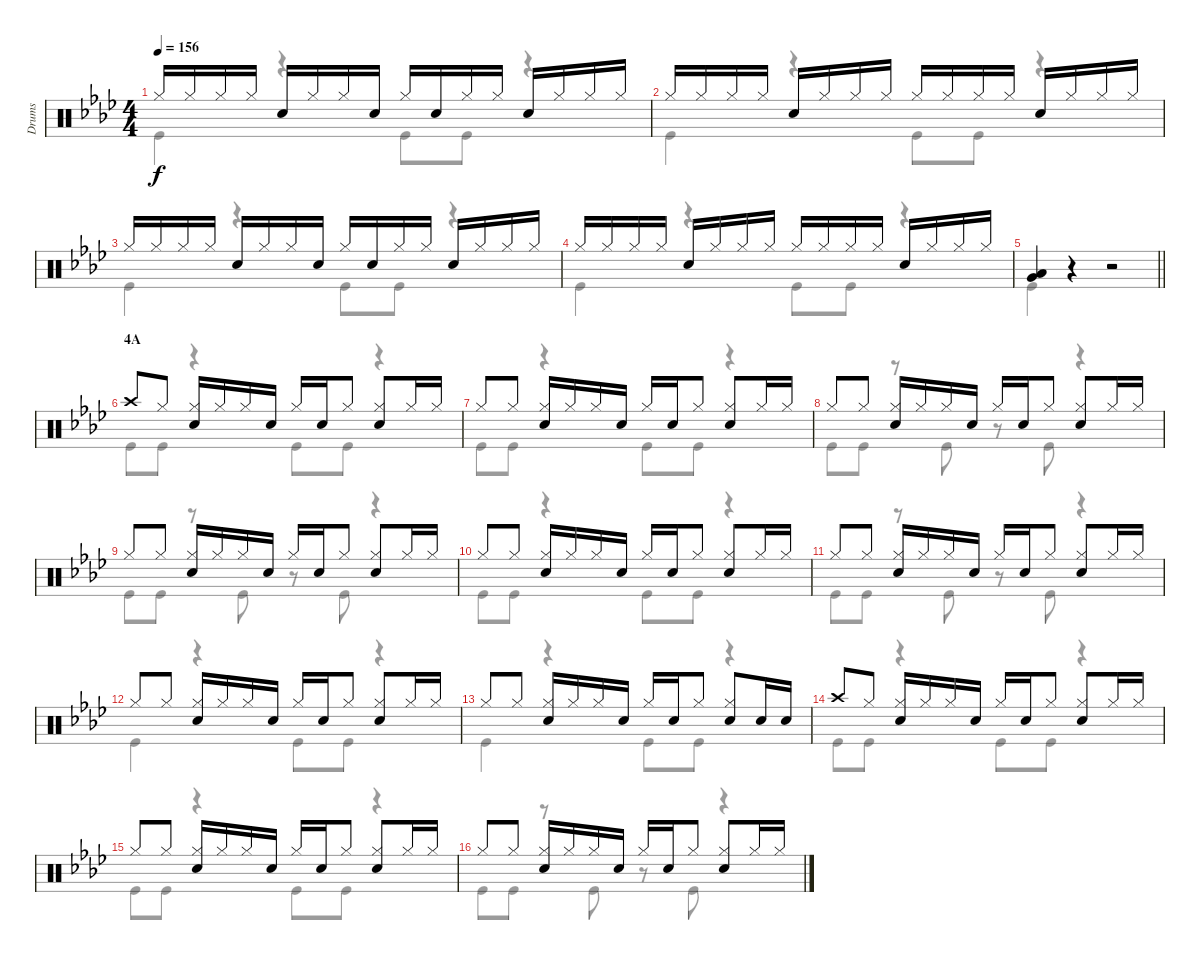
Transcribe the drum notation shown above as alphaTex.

\track ("Drums" "Drums") {instrument percussion}
\staff {score}
\articulation defaults
\voice
\ts (4 4)
\tempo 156
\clef neutral
\ks ab "Hi-Hat (closed)".16{dy f} "Hi-Hat (closed)".16 "Hi-Hat (closed)".16 "Hi-Hat (closed)".16 "Snare (hit) 2".16 "Hi-Hat (closed)".16 "Hi-Hat (closed)".16 "Snare (hit) 2".16 "Hi-Hat (closed)".16 "Snare (hit) 2".16 "Hi-Hat (closed)".16 "Hi-Hat (closed)".16 "Snare (hit) 2".16 "Hi-Hat (closed)".16 "Hi-Hat (closed)".16 "Hi-Hat (closed)".16
|
"Hi-Hat (closed)".16 "Hi-Hat (closed)".16 "Hi-Hat (closed)".16 "Hi-Hat (closed)".16 "Snare (hit) 2".16 "Hi-Hat (closed)".16 "Hi-Hat (closed)".16 "Hi-Hat (closed)".16 "Hi-Hat (closed)".16 "Hi-Hat (closed)".16 "Hi-Hat (closed)".16 "Hi-Hat (closed)".16 "Snare (hit) 2".16 "Hi-Hat (closed)".16 "Hi-Hat (closed)".16 "Hi-Hat (closed)".16 |
"Hi-Hat (closed)".16 "Hi-Hat (closed)".16 "Hi-Hat (closed)".16 "Hi-Hat (closed)".16 "Snare (hit) 2".16 "Hi-Hat (closed)".16 "Hi-Hat (closed)".16 "Snare (hit) 2".16 "Hi-Hat (closed)".16 "Snare (hit) 2".16 "Hi-Hat (closed)".16 "Hi-Hat (closed)".16 "Snare (hit) 2".16 "Hi-Hat (closed)".16 "Hi-Hat (closed)".16 "Hi-Hat (closed)".16 |
"Hi-Hat (closed)".16 "Hi-Hat (closed)".16 "Hi-Hat (closed)".16 "Hi-Hat (closed)".16 "Snare (hit) 2".16 "Hi-Hat (closed)".16 "Hi-Hat (closed)".16 "Hi-Hat (closed)".16 "Hi-Hat (closed)".16 "Hi-Hat (closed)".16 "Hi-Hat (closed)".16 "Hi-Hat (closed)".16 "Snare (hit) 2".16 "Hi-Hat (closed)".16 "Hi-Hat (closed)".16 "Hi-Hat (closed)".16 |
\barLineRight lightlight
("Low Tom (hit)" "Very Low Tom (hit)").4 r.4 r.2 |
\section ("" "4A")
"Crash high (hit)".8 "Hi-Hat (closed)".8 ("Hi-Hat (closed)" "Snare (hit) 2").16 "Hi-Hat (closed)".16 "Hi-Hat (closed)".16 "Snare (hit) 2".16 "Hi-Hat (closed)".16 "Snare (hit) 2".16 "Hi-Hat (closed)".8 ("Hi-Hat (closed)" "Snare (hit) 2").8 "Hi-Hat (closed)".16 "Hi-Hat (closed)".16 |
"Hi-Hat (closed)".8 "Hi-Hat (closed)".8 ("Hi-Hat (closed)" "Snare (hit) 2").16 "Hi-Hat (closed)".16 "Hi-Hat (closed)".16 "Snare (hit) 2".16 "Hi-Hat (closed)".16 "Snare (hit) 2".16 "Hi-Hat (closed)".8 ("Hi-Hat (closed)" "Snare (hit) 2").8 "Hi-Hat (closed)".16 "Hi-Hat (closed)".16 |
"Hi-Hat (closed)".8 "Hi-Hat (closed)".8 ("Hi-Hat (closed)" "Snare (hit) 2").16 "Hi-Hat (closed)".16 "Hi-Hat (closed)".16 "Snare (hit) 2".16 "Hi-Hat (closed)".16 "Snare (hit) 2".16 "Hi-Hat (closed)".8 ("Hi-Hat (closed)" "Snare (hit) 2").8 "Hi-Hat (closed)".16 "Hi-Hat (closed)".16 |
"Hi-Hat (closed)".8 "Hi-Hat (closed)".8 ("Hi-Hat (closed)" "Snare (hit) 2").16 "Hi-Hat (closed)".16 "Hi-Hat (closed)".16 "Snare (hit) 2".16 "Hi-Hat (closed)".16 "Snare (hit) 2".16 "Hi-Hat (closed)".8 ("Hi-Hat (closed)" "Snare (hit) 2").8 "Hi-Hat (closed)".16 "Hi-Hat (closed)".16 |
"Hi-Hat (closed)".8 "Hi-Hat (closed)".8 ("Hi-Hat (closed)" "Snare (hit) 2").16 "Hi-Hat (closed)".16 "Hi-Hat (closed)".16 "Snare (hit) 2".16 "Hi-Hat (closed)".16 "Snare (hit) 2".16 "Hi-Hat (closed)".8 ("Hi-Hat (closed)" "Snare (hit) 2").8 "Hi-Hat (closed)".16 "Hi-Hat (closed)".16 |
"Hi-Hat (closed)".8 "Hi-Hat (closed)".8 ("Hi-Hat (closed)" "Snare (hit) 2").16 "Hi-Hat (closed)".16 "Hi-Hat (closed)".16 "Snare (hit) 2".16 "Hi-Hat (closed)".16 "Snare (hit) 2".16 "Hi-Hat (closed)".8 ("Hi-Hat (closed)" "Snare (hit) 2").8 "Hi-Hat (closed)".16 "Hi-Hat (closed)".16 |
"Hi-Hat (closed)".8 "Hi-Hat (closed)".8 ("Hi-Hat (closed)" "Snare (hit) 2").16 "Hi-Hat (closed)".16 "Hi-Hat (closed)".16 "Snare (hit) 2".16 "Hi-Hat (closed)".16 "Snare (hit) 2".16 "Hi-Hat (closed)".8 ("Hi-Hat (closed)" "Snare (hit) 2").8 "Hi-Hat (closed)".16 "Hi-Hat (closed)".16 |
"Hi-Hat (closed)".8 "Hi-Hat (closed)".8 ("Hi-Hat (closed)" "Snare (hit) 2").16 "Hi-Hat (closed)".16 "Hi-Hat (closed)".16 "Snare (hit) 2".16 "Hi-Hat (closed)".16 "Snare (hit) 2".16 "Hi-Hat (closed)".8 ("Hi-Hat (closed)" "Snare (hit) 2").8 "Snare (hit) 2".16 "Snare (hit) 2".16 |
"Crash high (hit)".8 "Hi-Hat (closed)".8 ("Hi-Hat (closed)" "Snare (hit) 2").16 "Hi-Hat (closed)".16 "Hi-Hat (closed)".16 "Snare (hit) 2".16 "Hi-Hat (closed)".16 "Snare (hit) 2".16 "Hi-Hat (closed)".8 ("Hi-Hat (closed)" "Snare (hit) 2").8 "Hi-Hat (closed)".16 "Hi-Hat (closed)".16 |
"Hi-Hat (closed)".8 "Hi-Hat (closed)".8 ("Hi-Hat (closed)" "Snare (hit) 2").16 "Hi-Hat (closed)".16 "Hi-Hat (closed)".16 "Snare (hit) 2".16 "Hi-Hat (closed)".16 "Snare (hit) 2".16 "Hi-Hat (closed)".8 ("Hi-Hat (closed)" "Snare (hit) 2").8 "Hi-Hat (closed)".16 "Hi-Hat (closed)".16 |
"Hi-Hat (closed)".8 "Hi-Hat (closed)".8 ("Hi-Hat (closed)" "Snare (hit) 2").16 "Hi-Hat (closed)".16 "Hi-Hat (closed)".16 "Snare (hit) 2".16 "Hi-Hat (closed)".16 "Snare (hit) 2".16 "Hi-Hat (closed)".8 ("Hi-Hat (closed)" "Snare (hit) 2").8 "Hi-Hat (closed)".16 "Hi-Hat (closed)".16
\voice
\clef neutral
\ottava regular
\simile none
\ks ab "Kick (hit)".4{dy f}
r.4 "Kick (hit)".8 "Kick (hit)".8 r.4 |
"Kick (hit)".4 r.4 "Kick (hit)".8 "Kick (hit)".8 r.4 |
"Kick (hit)".4 r.4 "Kick (hit)".8 "Kick (hit)".8 r.4 |
"Kick (hit)".4 r.4 "Kick (hit)".8 "Kick (hit)".8 r.4 |
\barLineRight lightlight "Kick (hit)".4
r.4 r.2 |
"Kick (hit)".8 "Kick (hit)".8 r.4 "Kick (hit)".8 "Kick (hit)".8 r.4 |
"Kick (hit)".8 "Kick (hit)".8 r.4 "Kick (hit)".8 "Kick (hit)".8 r.4 |
"Kick (hit)".8 "Kick (hit)".8 r.8 "Kick (hit)".8 r.8 "Kick (hit)".8 r.4 |
"Kick (hit)".8 "Kick (hit)".8 r.8 "Kick (hit)".8 r.8 "Kick (hit)".8 r.4 |
"Kick (hit)".8 "Kick (hit)".8 r.4 "Kick (hit)".8 "Kick (hit)".8 r.4 |
"Kick (hit)".8 "Kick (hit)".8 r.8 "Kick (hit)".8 r.8 "Kick (hit)".8 r.4 |
"Kick (hit)".4 r.4 "Kick (hit)".8 "Kick (hit)".8 r.4 |
"Kick (hit)".4 r.4 "Kick (hit)".8 "Kick (hit)".8 r.4 |
"Kick (hit)".8 "Kick (hit)".8 r.4 "Kick (hit)".8 "Kick (hit)".8 r.4 |
"Kick (hit)".8 "Kick (hit)".8 r.4 "Kick (hit)".8 "Kick (hit)".8 r.4 |
"Kick (hit)".8 "Kick (hit)".8 r.8 "Kick (hit)".8 r.8 "Kick (hit)".8 r.4
